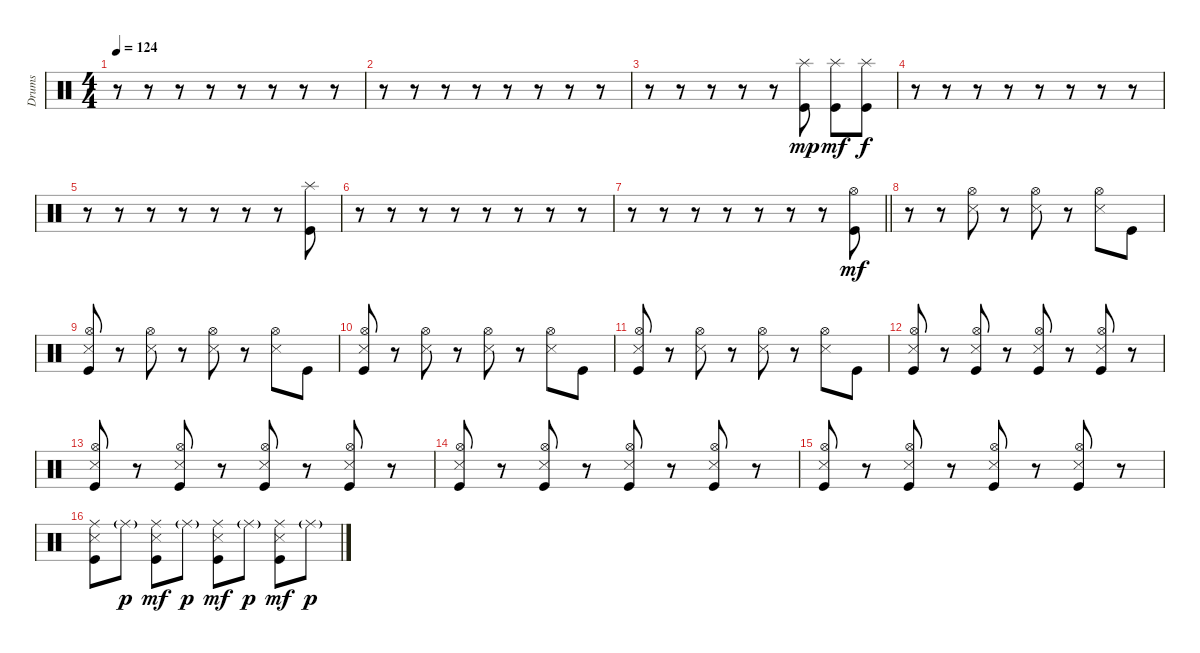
\track ("Drums" "Drums") {instrument percussion}
\staff {score}
\articulation defaults
\ts (4 4)
\tempo 124
\clef neutral
\ks c
r.8{dy f} r.8 r.8 r.8 r.8 r.8 r.8 r.8 |
r.8 r.8 r.8 r.8 r.8 r.8 r.8 r.8 |
r.8 r.8 r.8 r.8 r.8 ("Splash (hit)" "Kick (hit)").8{dy mp} ("Splash (hit)" "Kick (hit)").8{dy mf} ("Splash (hit)" "Kick (hit)").8{dy f} |
r.8 r.8 r.8 r.8 r.8 r.8 r.8 r.8 |
r.8 r.8 r.8 r.8 r.8 r.8 r.8 ("Splash (hit)" "Kick (hit)").8 |
r.8 r.8 r.8 r.8 r.8 r.8 r.8 r.8 |
\barLineRight lightlight
r.8 r.8 r.8 r.8 r.8 r.8 r.8 ("Hi-Hat (open)" "Kick (hit)").8{dy mf} |
r.8 r.8 ("Hi-Hat (open)" "Snare (side stick) 3").8 r.8 ("Hi-Hat (open)" "Snare (side stick) 3").8 r.8 ("Hi-Hat (open)" "Snare (side stick) 3").8 "Kick (hit)".8 |
("Hi-Hat (open)" "Snare (side stick) 3" "Kick (hit)").8 r.8 ("Hi-Hat (open)" "Snare (side stick) 3").8 r.8 ("Hi-Hat (open)" "Snare (side stick) 3").8 r.8 ("Hi-Hat (open)" "Snare (side stick) 3").8 "Kick (hit)".8 |
("Hi-Hat (open)" "Snare (side stick) 3" "Kick (hit)").8 r.8 ("Hi-Hat (open)" "Snare (side stick) 3").8 r.8 ("Hi-Hat (open)" "Snare (side stick) 3").8 r.8 ("Hi-Hat (open)" "Snare (side stick) 3").8 "Kick (hit)".8 |
("Hi-Hat (open)" "Snare (side stick) 3" "Kick (hit)").8 r.8 ("Hi-Hat (open)" "Snare (side stick) 3").8 r.8 ("Hi-Hat (open)" "Snare (side stick) 3").8 r.8 ("Hi-Hat (open)" "Snare (side stick) 3").8 "Kick (hit)".8 |
("Hi-Hat (open)" "Snare (side stick) 3" "Kick (hit)").8 r.8 ("Hi-Hat (open)" "Snare (side stick) 3" "Kick (hit)").8 r.8 ("Hi-Hat (open)" "Snare (side stick) 3" "Kick (hit)").8 r.8 ("Hi-Hat (open)" "Snare (side stick) 3" "Kick (hit)").8 r.8 |
("Hi-Hat (open)" "Snare (side stick) 3" "Kick (hit)").8 r.8 ("Hi-Hat (open)" "Snare (side stick) 3" "Kick (hit)").8 r.8 ("Hi-Hat (open)" "Snare (side stick) 3" "Kick (hit)").8 r.8 ("Hi-Hat (open)" "Snare (side stick) 3" "Kick (hit)").8 r.8 |
("Hi-Hat (open)" "Snare (side stick) 3" "Kick (hit)").8 r.8 ("Hi-Hat (open)" "Snare (side stick) 3" "Kick (hit)").8 r.8 ("Hi-Hat (open)" "Snare (side stick) 3" "Kick (hit)").8 r.8 ("Hi-Hat (open)" "Snare (side stick) 3" "Kick (hit)").8 r.8 |
("Hi-Hat (open)" "Snare (side stick) 3" "Kick (hit)").8 r.8 ("Hi-Hat (open)" "Snare (side stick) 3" "Kick (hit)").8 r.8 ("Hi-Hat (open)" "Snare (side stick) 3" "Kick (hit)").8 r.8 ("Hi-Hat (open)" "Snare (side stick) 3" "Kick (hit)").8 r.8 |
("Ride (middle)" "Snare (side stick) 3" "Kick (hit)").8 "Ride (middle)"{g}.8{dy p} ("Ride (middle)" "Snare (side stick) 3" "Kick (hit)").8{dy mf} "Ride (middle)"{g}.8{dy p} ("Ride (middle)" "Snare (side stick) 3" "Kick (hit)").8{dy mf} "Ride (middle)"{g}.8{dy p} ("Ride (middle)" "Snare (side stick) 3" "Kick (hit)").8{dy mf} "Ride (middle)"{g}.8{dy p}
